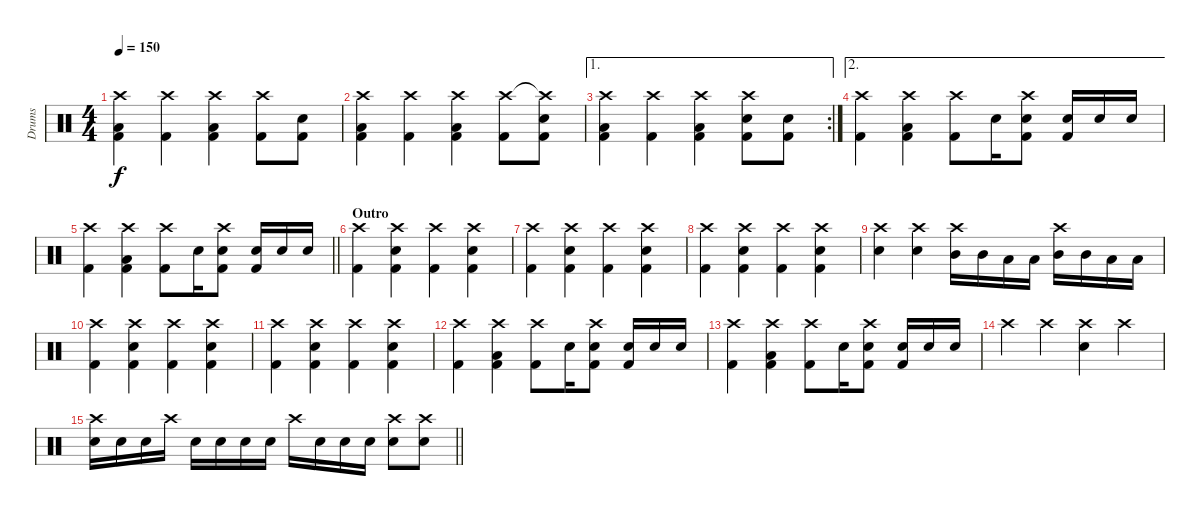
\track ("Drums" "Drums") {instrument percussion}
\staff {score}
\articulation defaults
\ts (4 4)
\tempo 150
\clef neutral
\ks c
("Crash high (hit)" "Kick (hit) 2" "Low Tom (hit)").4{dy f} ("Crash high (hit)" "Kick (hit) 2").4 ("Crash high (hit)" "Kick (hit) 2" "Low Tom (hit)").4 ("Crash high (hit)" "Kick (hit) 2").8 ("Kick (hit) 2" "Electric Snare (hit)").8 |
("Crash high (hit)" "Kick (hit) 2" "Low Tom (hit)").4 ("Crash high (hit)" "Kick (hit) 2").4 ("Crash high (hit)" "Kick (hit) 2" "Low Tom (hit)").4 ("Crash high (hit)" "Kick (hit) 2").8 ("Crash high (hit)"{t} "Kick (hit) 2" "Electric Snare (hit)").8 |
\ae 1
\rc 2
("Crash high (hit)" "Kick (hit) 2" "Low Tom (hit)").4 ("Crash high (hit)" "Kick (hit) 2").4 ("Crash high (hit)" "Kick (hit) 2" "Low Tom (hit)").4 ("Crash high (hit)" "Kick (hit) 2" "Electric Snare (hit)").8 ("Kick (hit) 2" "Electric Snare (hit)").8 |
\ae 2
("Crash high (hit)" "Kick (hit) 2").4 ("Crash high (hit)" "Kick (hit) 2" "Low Tom (hit)").4 ("Crash high (hit)" "Kick (hit) 2").8 "Electric Snare (hit)".16 ("Crash high (hit)" "Kick (hit) 2" "Electric Snare (hit)").8 ("Kick (hit) 2" "Electric Snare (hit)").16 "Electric Snare (hit)".16 "Electric Snare (hit)".16 |
\barLineRight lightlight
("Crash high (hit)" "Kick (hit) 2").4 ("Crash high (hit)" "Kick (hit) 2" "Low Tom (hit)").4 ("Crash high (hit)" "Kick (hit) 2").8 "Electric Snare (hit)".16 ("Crash high (hit)" "Kick (hit) 2" "Electric Snare (hit)").8 ("Kick (hit) 2" "Electric Snare (hit)").16 "Electric Snare (hit)".16 "Electric Snare (hit)".16 |
\section ("" "Outro")
("Crash high (hit)" "Kick (hit) 2").4 ("Crash high (hit)" "Kick (hit) 2" "Electric Snare (hit)").4 ("Crash high (hit)" "Kick (hit) 2").4 ("Crash high (hit)" "Kick (hit) 2" "Electric Snare (hit)").4 |
("Crash high (hit)" "Kick (hit) 2").4 ("Crash high (hit)" "Kick (hit) 2" "Electric Snare (hit)").4 ("Crash high (hit)" "Kick (hit) 2").4 ("Crash high (hit)" "Kick (hit) 2" "Electric Snare (hit)").4 |
("Crash high (hit)" "Kick (hit) 2").4 ("Crash high (hit)" "Kick (hit) 2" "Electric Snare (hit)").4 ("Crash high (hit)" "Kick (hit) 2").4 ("Crash high (hit)" "Kick (hit) 2" "Electric Snare (hit)").4 |
("Crash high (hit)" "Electric Snare (hit)").4 ("Crash high (hit)" "Electric Snare (hit)").4 ("Crash high (hit)" "Mid Tom (hit)").16 "Mid Tom (hit)".16 "Low Tom (hit)".16 "Low Tom (hit)".16 ("Crash high (hit)" "Mid Tom (hit)").16 "Mid Tom (hit)".16 "Low Tom (hit)".16 "Low Tom (hit)".16 |
("Crash high (hit)" "Kick (hit) 2").4 ("Crash high (hit)" "Kick (hit) 2" "Electric Snare (hit)").4 ("Crash high (hit)" "Kick (hit) 2").4 ("Crash high (hit)" "Kick (hit) 2" "Electric Snare (hit)").4 |
("Crash high (hit)" "Kick (hit) 2").4 ("Crash high (hit)" "Kick (hit) 2" "Electric Snare (hit)").4 ("Crash high (hit)" "Kick (hit) 2").4 ("Crash high (hit)" "Kick (hit) 2" "Electric Snare (hit)").4 |
("Crash high (hit)" "Kick (hit) 2").4 ("Crash high (hit)" "Kick (hit) 2" "Low Tom (hit)").4 ("Crash high (hit)" "Kick (hit) 2").8 "Electric Snare (hit)".16 ("Crash high (hit)" "Kick (hit) 2" "Electric Snare (hit)").8 ("Kick (hit) 2" "Electric Snare (hit)").16 "Electric Snare (hit)".16 "Electric Snare (hit)".16 |
("Crash high (hit)" "Kick (hit) 2").4 ("Crash high (hit)" "Kick (hit) 2" "Low Tom (hit)").4 ("Crash high (hit)" "Kick (hit) 2").8 "Electric Snare (hit)".16 ("Crash high (hit)" "Kick (hit) 2" "Electric Snare (hit)").8 ("Kick (hit) 2" "Electric Snare (hit)").16 "Electric Snare (hit)".16 "Electric Snare (hit)".16 |
"Crash high (hit)".4 "Crash high (hit)".4 ("Crash high (hit)" "Electric Snare (hit)").4 "Crash high (hit)".4 |
\barLineRight lightlight
("Crash high (hit)" "Electric Snare (hit)").16 "Electric Snare (hit)".16 "Electric Snare (hit)".16 "Crash high (hit)".16 "Electric Snare (hit)".16 "Electric Snare (hit)".16 "Electric Snare (hit)".16 "Electric Snare (hit)".16 "Crash high (hit)".16 "Electric Snare (hit)".16 "Electric Snare (hit)".16 "Electric Snare (hit)".16 ("Crash high (hit)" "Electric Snare (hit)").8 ("Crash high (hit)" "Electric Snare (hit)").8
